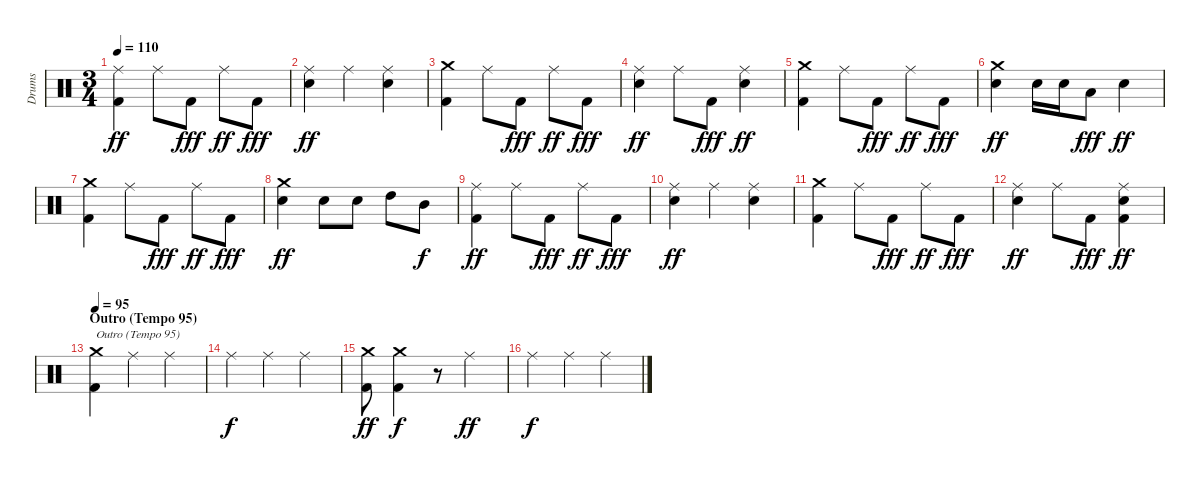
\track ("Drums" "Drums") {instrument percussion}
\staff {score}
\articulation defaults
\ts (3 4)
\tempo 110
\clef neutral
\ks c
("Ride (middle)" "Kick (hit) 2").4{dy ff} "Ride (middle)".8 "Kick (hit) 2".8{dy fff} "Ride (middle)".8{dy ff} "Kick (hit) 2".8{dy fff} |
("Ride (middle)" "Snare (hit) 2").4{dy ff} "Ride (middle)".4 ("Ride (middle)" "Snare (hit) 2").4 |
("Crash medium (hit)" "Kick (hit) 2").4 "Ride (middle)".8 "Kick (hit) 2".8{dy fff} "Ride (middle)".8{dy ff} "Kick (hit) 2".8{dy fff} |
("Ride (middle)" "Snare (hit) 2").4{dy ff} "Ride (middle)".8 "Kick (hit) 2".8{dy fff} ("Ride (middle)" "Snare (hit) 2").4{dy ff} |
("Crash medium (hit)" "Kick (hit) 2").4 "Ride (middle)".8 "Kick (hit) 2".8{dy fff} "Ride (middle)".8{dy ff} "Kick (hit) 2".8{dy fff} |
("Crash medium (hit)" "Snare (hit) 2").4{dy ff} "Snare (hit) 2".16 "Snare (hit) 2".16 "Low Tom (hit)".8{dy fff} "Snare (hit) 2".4{dy ff} |
("Crash medium (hit)" "Kick (hit) 2").4 "Ride (middle)".8 "Kick (hit) 2".8{dy fff} "Ride (middle)".8{dy ff} "Kick (hit) 2".8{dy fff} |
("Crash medium (hit)" "Snare (hit) 2").4{dy ff} "Snare (hit) 2".8 "Snare (hit) 2".8 "High Tom (hit)".8 "Mid Tom (hit)".8{dy f} |
("Ride (middle)" "Kick (hit) 2").4{dy ff} "Ride (middle)".8 "Kick (hit) 2".8{dy fff} "Ride (middle)".8{dy ff} "Kick (hit) 2".8{dy fff} |
("Ride (middle)" "Snare (hit) 2").4{dy ff} "Ride (middle)".4 ("Ride (middle)" "Snare (hit) 2").4 |
("Crash medium (hit)" "Kick (hit) 2").4 "Ride (middle)".8 "Kick (hit) 2".8{dy fff} "Ride (middle)".8{dy ff} "Kick (hit) 2".8{dy fff} |
("Ride (middle)" "Snare (hit) 2").4{dy ff} "Ride (middle)".8 "Kick (hit) 2".8{dy fff} ("Ride (middle)" "Snare (hit) 2" "Kick (hit) 2").4{dy ff} |
\section ("" "Outro (Tempo 95)")
\tempo 95
("Crash medium (hit)" "Kick (hit) 2").4{txt "Outro (Tempo 95)"} "Ride (middle)".4 "Ride (middle)".4 |
"Ride (middle)".4{dy f} "Ride (middle)".4 "Ride (middle)".4 |
("Crash medium (hit)" "Kick (hit) 2").8{dy ff} ("Crash medium (hit)" "Kick (hit) 2").4{dy f} r.8 "Ride (middle)".4{dy ff} |
"Ride (middle)".4{dy f} "Ride (middle)".4 "Ride (middle)".4
